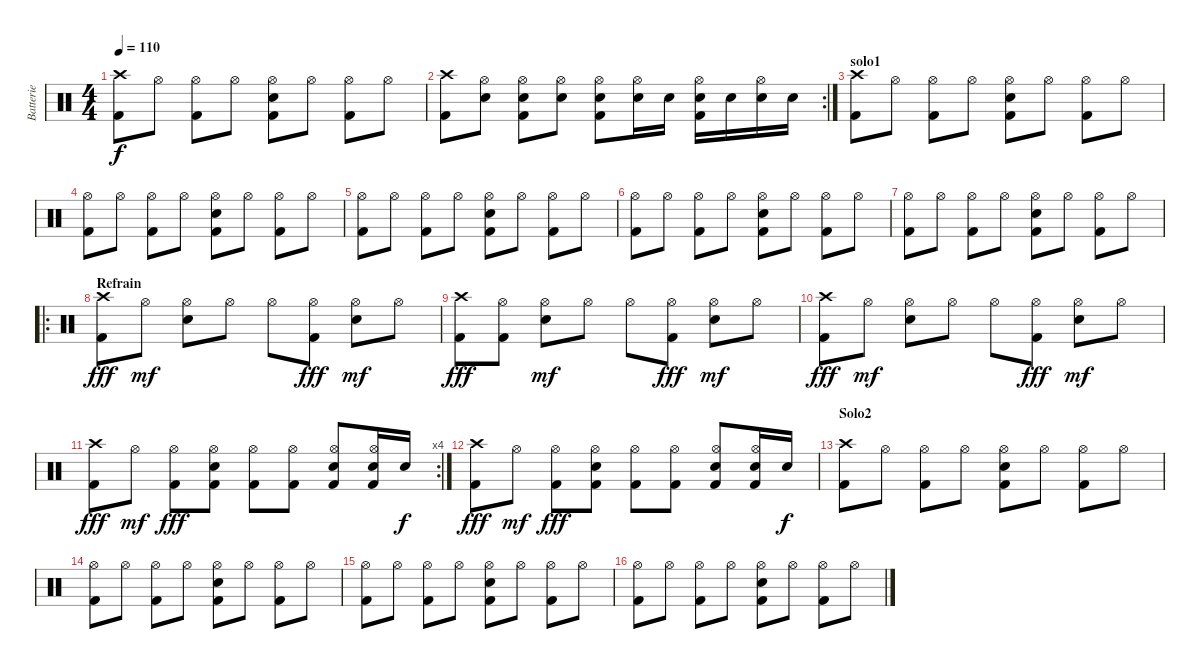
\track ("Batterie" "Batterie") {instrument percussion}
\staff {score}
\articulation defaults
\ts (4 4)
\tempo 110
\clef neutral
\ks c
("Crash high (hit)" "Kick (hit) 2").8{dy f} "Hi-Hat (open)".8 ("Hi-Hat (open)" "Kick (hit) 2").8 "Hi-Hat (open)".8 ("Snare (hit) 2" "Hi-Hat (open)" "Kick (hit) 2").8 "Hi-Hat (open)".8 ("Hi-Hat (open)" "Kick (hit) 2").8 "Hi-Hat (open)".8 |
\rc 2
("Crash high (hit)" "Kick (hit) 2").8 ("Snare (hit) 2" "Hi-Hat (open)").8 ("Snare (hit) 2" "Hi-Hat (open)" "Kick (hit) 2").8 ("Snare (hit) 2" "Hi-Hat (open)").8 ("Snare (hit) 2" "Hi-Hat (open)" "Kick (hit) 2").8 ("Snare (hit) 2" "Hi-Hat (open)").16 "Snare (hit) 2".16 ("Snare (hit) 2" "Hi-Hat (open)" "Kick (hit) 2").16 "Snare (hit) 2".16 ("Snare (hit) 2" "Hi-Hat (open)").16 "Snare (hit) 2".16 |
\section ("" "solo1")
("Crash high (hit)" "Kick (hit) 2").8 "Hi-Hat (open)".8 ("Hi-Hat (open)" "Kick (hit) 2").8 "Hi-Hat (open)".8 ("Snare (hit) 2" "Hi-Hat (open)" "Kick (hit) 2").8 "Hi-Hat (open)".8 ("Hi-Hat (open)" "Kick (hit) 2").8 "Hi-Hat (open)".8 |
("Hi-Hat (open)" "Kick (hit) 2").8 "Hi-Hat (open)".8 ("Hi-Hat (open)" "Kick (hit) 2").8 "Hi-Hat (open)".8 ("Snare (hit) 2" "Hi-Hat (open)" "Kick (hit) 2").8 "Hi-Hat (open)".8 ("Hi-Hat (open)" "Kick (hit) 2").8 "Hi-Hat (open)".8 |
("Hi-Hat (open)" "Kick (hit) 2").8 "Hi-Hat (open)".8 ("Hi-Hat (open)" "Kick (hit) 2").8 "Hi-Hat (open)".8 ("Snare (hit) 2" "Hi-Hat (open)" "Kick (hit) 2").8 "Hi-Hat (open)".8 ("Hi-Hat (open)" "Kick (hit) 2").8 "Hi-Hat (open)".8 |
("Hi-Hat (open)" "Kick (hit) 2").8 "Hi-Hat (open)".8 ("Hi-Hat (open)" "Kick (hit) 2").8 "Hi-Hat (open)".8 ("Snare (hit) 2" "Hi-Hat (open)" "Kick (hit) 2").8 "Hi-Hat (open)".8 ("Hi-Hat (open)" "Kick (hit) 2").8 "Hi-Hat (open)".8 |
("Hi-Hat (open)" "Kick (hit) 2").8 "Hi-Hat (open)".8 ("Hi-Hat (open)" "Kick (hit) 2").8 "Hi-Hat (open)".8 ("Snare (hit) 2" "Hi-Hat (open)" "Kick (hit) 2").8 "Hi-Hat (open)".8 ("Hi-Hat (open)" "Kick (hit) 2").8 "Hi-Hat (open)".8 |
\ro
\section ("" "Refrain")
("Crash high (hit)" "Kick (hit) 2").8{dy fff} "Hi-Hat (open)".8{dy mf} ("Hi-Hat (open)" "Snare (hit) 2").8 "Hi-Hat (open)".8 "Hi-Hat (open)".8 ("Hi-Hat (open)" "Kick (hit) 2").8{dy fff} ("Hi-Hat (open)" "Snare (hit) 2").8{dy mf} "Hi-Hat (open)".8 |
("Crash high (hit)" "Kick (hit) 2").8{dy fff} ("Hi-Hat (open)" "Kick (hit) 2").8 ("Hi-Hat (open)" "Snare (hit) 2").8{dy mf} "Hi-Hat (open)".8 "Hi-Hat (open)".8 ("Hi-Hat (open)" "Kick (hit) 2").8{dy fff} ("Hi-Hat (open)" "Snare (hit) 2").8{dy mf} "Hi-Hat (open)".8 |
("Crash high (hit)" "Kick (hit) 2").8{dy fff} "Hi-Hat (open)".8{dy mf} ("Hi-Hat (open)" "Snare (hit) 2").8 "Hi-Hat (open)".8 "Hi-Hat (open)".8 ("Hi-Hat (open)" "Kick (hit) 2").8{dy fff} ("Hi-Hat (open)" "Snare (hit) 2").8{dy mf} "Hi-Hat (open)".8 |
\rc 4
("Crash high (hit)" "Kick (hit) 2").8{dy fff} "Hi-Hat (open)".8{dy mf} ("Hi-Hat (open)" "Kick (hit) 2").8{dy fff} ("Hi-Hat (open)" "Snare (hit) 2" "Kick (hit) 2").8 ("Hi-Hat (open)" "Kick (hit) 2").8 ("Hi-Hat (open)" "Kick (hit) 2").8 ("Hi-Hat (open)" "Snare (hit) 2" "Kick (hit) 2").8 ("Hi-Hat (open)" "Snare (hit) 2" "Kick (hit) 2").16 "Snare (hit) 2".16{dy f} |
("Crash high (hit)" "Kick (hit) 2").8{dy fff} "Hi-Hat (open)".8{dy mf} ("Hi-Hat (open)" "Kick (hit) 2").8{dy fff} ("Hi-Hat (open)" "Snare (hit) 2" "Kick (hit) 2").8 ("Hi-Hat (open)" "Kick (hit) 2").8 ("Hi-Hat (open)" "Kick (hit) 2").8 ("Hi-Hat (open)" "Snare (hit) 2" "Kick (hit) 2").8 ("Hi-Hat (open)" "Snare (hit) 2" "Kick (hit) 2").16 "Snare (hit) 2".16{dy f} |
\section ("" "Solo2")
("Crash high (hit)" "Kick (hit) 2").8 "Hi-Hat (open)".8 ("Hi-Hat (open)" "Kick (hit) 2").8 "Hi-Hat (open)".8 ("Snare (hit) 2" "Hi-Hat (open)" "Kick (hit) 2").8 "Hi-Hat (open)".8 ("Hi-Hat (open)" "Kick (hit) 2").8 "Hi-Hat (open)".8 |
("Hi-Hat (open)" "Kick (hit) 2").8 "Hi-Hat (open)".8 ("Hi-Hat (open)" "Kick (hit) 2").8 "Hi-Hat (open)".8 ("Snare (hit) 2" "Hi-Hat (open)" "Kick (hit) 2").8 "Hi-Hat (open)".8 ("Hi-Hat (open)" "Kick (hit) 2").8 "Hi-Hat (open)".8 |
("Hi-Hat (open)" "Kick (hit) 2").8 "Hi-Hat (open)".8 ("Hi-Hat (open)" "Kick (hit) 2").8 "Hi-Hat (open)".8 ("Snare (hit) 2" "Hi-Hat (open)" "Kick (hit) 2").8 "Hi-Hat (open)".8 ("Hi-Hat (open)" "Kick (hit) 2").8 "Hi-Hat (open)".8 |
("Hi-Hat (open)" "Kick (hit) 2").8 "Hi-Hat (open)".8 ("Hi-Hat (open)" "Kick (hit) 2").8 "Hi-Hat (open)".8 ("Snare (hit) 2" "Hi-Hat (open)" "Kick (hit) 2").8 "Hi-Hat (open)".8 ("Hi-Hat (open)" "Kick (hit) 2").8 "Hi-Hat (open)".8
